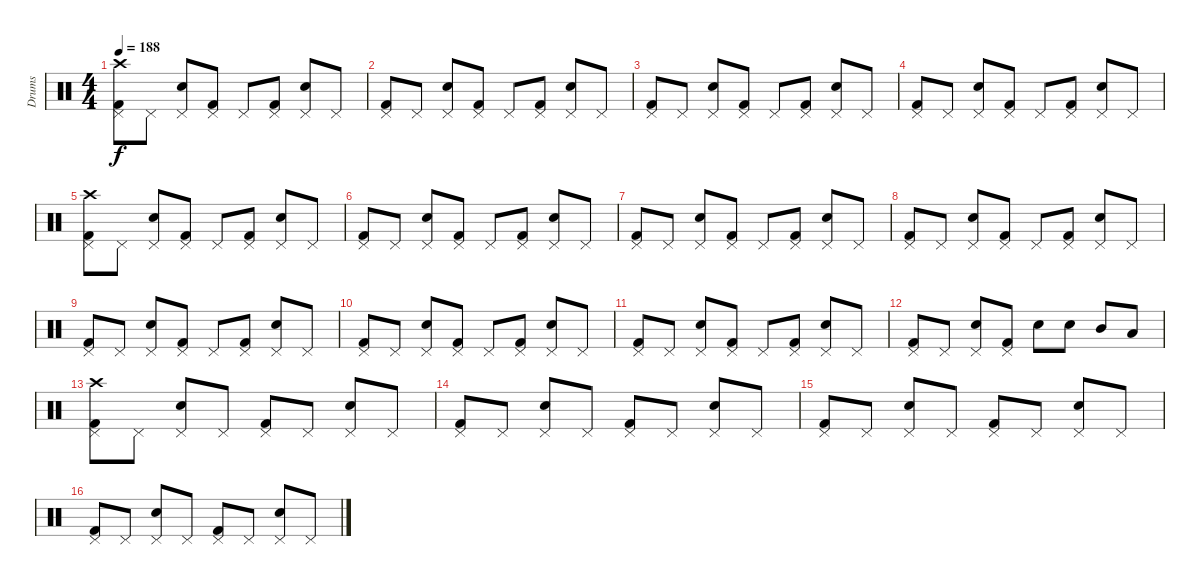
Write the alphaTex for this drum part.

\track ("Drums" "Drums") {instrument percussion}
\staff {score}
\articulation defaults
\ts (4 4)
\tempo 188
\clef neutral
\ks c
("Kick (hit) 2" "Pedal Hi-Hat (hit)" "Crash high (hit)").8{dy f} "Pedal Hi-Hat (hit)".8 ("Snare (hit) 2" "Pedal Hi-Hat (hit)").8 ("Kick (hit) 2" "Pedal Hi-Hat (hit)").8 "Pedal Hi-Hat (hit)".8 ("Kick (hit) 2" "Pedal Hi-Hat (hit)").8 ("Snare (hit) 2" "Pedal Hi-Hat (hit)").8 "Pedal Hi-Hat (hit)".8 |
("Kick (hit) 2" "Pedal Hi-Hat (hit)").8 "Pedal Hi-Hat (hit)".8 ("Snare (hit) 2" "Pedal Hi-Hat (hit)").8 ("Kick (hit) 2" "Pedal Hi-Hat (hit)").8 "Pedal Hi-Hat (hit)".8 ("Kick (hit) 2" "Pedal Hi-Hat (hit)").8 ("Snare (hit) 2" "Pedal Hi-Hat (hit)").8 "Pedal Hi-Hat (hit)".8 |
("Kick (hit) 2" "Pedal Hi-Hat (hit)").8 "Pedal Hi-Hat (hit)".8 ("Snare (hit) 2" "Pedal Hi-Hat (hit)").8 ("Kick (hit) 2" "Pedal Hi-Hat (hit)").8 "Pedal Hi-Hat (hit)".8 ("Kick (hit) 2" "Pedal Hi-Hat (hit)").8 ("Snare (hit) 2" "Pedal Hi-Hat (hit)").8 "Pedal Hi-Hat (hit)".8 |
("Kick (hit) 2" "Pedal Hi-Hat (hit)").8 "Pedal Hi-Hat (hit)".8 ("Snare (hit) 2" "Pedal Hi-Hat (hit)").8 ("Kick (hit) 2" "Pedal Hi-Hat (hit)").8 "Pedal Hi-Hat (hit)".8 ("Kick (hit) 2" "Pedal Hi-Hat (hit)").8 ("Snare (hit) 2" "Pedal Hi-Hat (hit)").8 "Pedal Hi-Hat (hit)".8 |
("Kick (hit) 2" "Pedal Hi-Hat (hit)" "Crash high (hit)").8 "Pedal Hi-Hat (hit)".8 ("Snare (hit) 2" "Pedal Hi-Hat (hit)").8 ("Kick (hit) 2" "Pedal Hi-Hat (hit)").8 "Pedal Hi-Hat (hit)".8 ("Kick (hit) 2" "Pedal Hi-Hat (hit)").8 ("Snare (hit) 2" "Pedal Hi-Hat (hit)").8 "Pedal Hi-Hat (hit)".8 |
("Kick (hit) 2" "Pedal Hi-Hat (hit)").8 "Pedal Hi-Hat (hit)".8 ("Snare (hit) 2" "Pedal Hi-Hat (hit)").8 ("Kick (hit) 2" "Pedal Hi-Hat (hit)").8 "Pedal Hi-Hat (hit)".8 ("Kick (hit) 2" "Pedal Hi-Hat (hit)").8 ("Snare (hit) 2" "Pedal Hi-Hat (hit)").8 "Pedal Hi-Hat (hit)".8 |
("Kick (hit) 2" "Pedal Hi-Hat (hit)").8 "Pedal Hi-Hat (hit)".8 ("Snare (hit) 2" "Pedal Hi-Hat (hit)").8 ("Kick (hit) 2" "Pedal Hi-Hat (hit)").8 "Pedal Hi-Hat (hit)".8 ("Kick (hit) 2" "Pedal Hi-Hat (hit)").8 ("Snare (hit) 2" "Pedal Hi-Hat (hit)").8 "Pedal Hi-Hat (hit)".8 |
("Kick (hit) 2" "Pedal Hi-Hat (hit)").8 "Pedal Hi-Hat (hit)".8 ("Snare (hit) 2" "Pedal Hi-Hat (hit)").8 ("Kick (hit) 2" "Pedal Hi-Hat (hit)").8 "Pedal Hi-Hat (hit)".8 ("Kick (hit) 2" "Pedal Hi-Hat (hit)").8 ("Snare (hit) 2" "Pedal Hi-Hat (hit)").8 "Pedal Hi-Hat (hit)".8 |
("Kick (hit) 2" "Pedal Hi-Hat (hit)").8 "Pedal Hi-Hat (hit)".8 ("Snare (hit) 2" "Pedal Hi-Hat (hit)").8 ("Kick (hit) 2" "Pedal Hi-Hat (hit)").8 "Pedal Hi-Hat (hit)".8 ("Kick (hit) 2" "Pedal Hi-Hat (hit)").8 ("Snare (hit) 2" "Pedal Hi-Hat (hit)").8 "Pedal Hi-Hat (hit)".8 |
("Kick (hit) 2" "Pedal Hi-Hat (hit)").8 "Pedal Hi-Hat (hit)".8 ("Snare (hit) 2" "Pedal Hi-Hat (hit)").8 ("Kick (hit) 2" "Pedal Hi-Hat (hit)").8 "Pedal Hi-Hat (hit)".8 ("Kick (hit) 2" "Pedal Hi-Hat (hit)").8 ("Snare (hit) 2" "Pedal Hi-Hat (hit)").8 "Pedal Hi-Hat (hit)".8 |
("Kick (hit) 2" "Pedal Hi-Hat (hit)").8 "Pedal Hi-Hat (hit)".8 ("Snare (hit) 2" "Pedal Hi-Hat (hit)").8 ("Kick (hit) 2" "Pedal Hi-Hat (hit)").8 "Pedal Hi-Hat (hit)".8 ("Kick (hit) 2" "Pedal Hi-Hat (hit)").8 ("Snare (hit) 2" "Pedal Hi-Hat (hit)").8 "Pedal Hi-Hat (hit)".8 |
("Kick (hit) 2" "Pedal Hi-Hat (hit)").8 "Pedal Hi-Hat (hit)".8 ("Snare (hit) 2" "Pedal Hi-Hat (hit)").8 ("Kick (hit) 2" "Pedal Hi-Hat (hit)").8 "Snare (hit) 2".8 "Snare (hit) 2".8 "Mid Tom (hit)".8 "Low Tom (hit)".8 |
("Kick (hit) 2" "Pedal Hi-Hat (hit)" "Crash high (hit)").8 "Pedal Hi-Hat (hit)".8 ("Snare (hit) 2" "Pedal Hi-Hat (hit)").8 "Pedal Hi-Hat (hit)".8 ("Kick (hit) 2" "Pedal Hi-Hat (hit)").8 "Pedal Hi-Hat (hit)".8 ("Snare (hit) 2" "Pedal Hi-Hat (hit)").8 "Pedal Hi-Hat (hit)".8 |
("Kick (hit) 2" "Pedal Hi-Hat (hit)").8 "Pedal Hi-Hat (hit)".8 ("Snare (hit) 2" "Pedal Hi-Hat (hit)").8 "Pedal Hi-Hat (hit)".8 ("Kick (hit) 2" "Pedal Hi-Hat (hit)").8 "Pedal Hi-Hat (hit)".8 ("Snare (hit) 2" "Pedal Hi-Hat (hit)").8 "Pedal Hi-Hat (hit)".8 |
("Kick (hit) 2" "Pedal Hi-Hat (hit)").8 "Pedal Hi-Hat (hit)".8 ("Snare (hit) 2" "Pedal Hi-Hat (hit)").8 "Pedal Hi-Hat (hit)".8 ("Kick (hit) 2" "Pedal Hi-Hat (hit)").8 "Pedal Hi-Hat (hit)".8 ("Snare (hit) 2" "Pedal Hi-Hat (hit)").8 "Pedal Hi-Hat (hit)".8 |
("Kick (hit) 2" "Pedal Hi-Hat (hit)").8 "Pedal Hi-Hat (hit)".8 ("Snare (hit) 2" "Pedal Hi-Hat (hit)").8 "Pedal Hi-Hat (hit)".8 ("Kick (hit) 2" "Pedal Hi-Hat (hit)").8 "Pedal Hi-Hat (hit)".8 ("Snare (hit) 2" "Pedal Hi-Hat (hit)").8 "Pedal Hi-Hat (hit)".8
